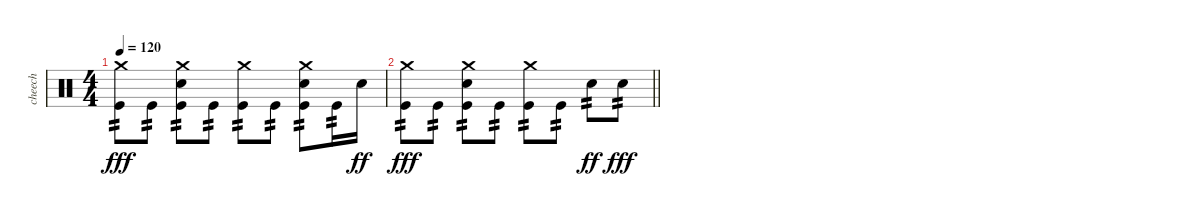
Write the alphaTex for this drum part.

\track ("cheech" "cheech") {instrument percussion}
\staff {score}
\articulation defaults
\ts (4 4)
\tempo 120
\clef neutral
\ks c
("Crash medium (hit)" "Kick (hit)").8{tp 2 dy fff} "Kick (hit)".8{tp 2} ("Crash medium (hit)" "Electric Snare (hit)" "Kick (hit)").8{tp 2} "Kick (hit)".8{tp 2} ("Crash medium (hit)" "Kick (hit)").8{tp 2} "Kick (hit)".8{tp 2} ("Crash medium (hit)" "Electric Snare (hit)" "Kick (hit)").8{tp 2} "Kick (hit)".16{tp 2} "Electric Snare (hit)".16{dy ff} |
\barLineRight lightlight
("Crash medium (hit)" "Kick (hit)").8{tp 2 dy fff} "Kick (hit)".8{tp 2} ("Crash medium (hit)" "Electric Snare (hit)" "Kick (hit)").8{tp 2} "Kick (hit)".8{tp 2} ("Crash medium (hit)" "Kick (hit)").8{tp 2} "Kick (hit)".8{tp 2} "Electric Snare (hit)".8{tp 2 dy ff} "Electric Snare (hit)".8{tp 2 dy fff}
